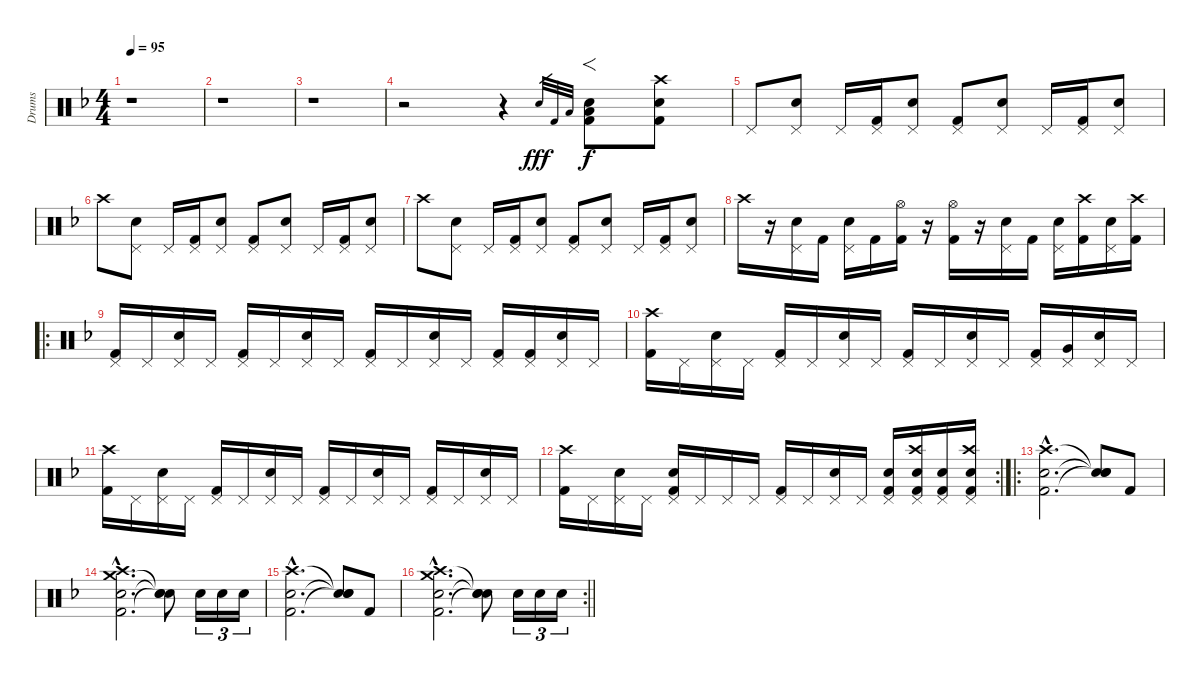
\track ("Drums" "Drums") {instrument percussion}
\staff {score}
\articulation defaults
\ts (4 4)
\tempo 95
\clef neutral
\ks dminor
r.1{dy fff} |
r.1 |
r.1 |
r.2 r.4 "Snare (hit) 2".32{gr} "Kick (hit) 2".32{gr} "Low Floor Tom (hit)".32{gr} ("Snare (hit) 2" "Kick (hit) 2" "Low Floor Tom (hit)").8{f bd 30 dy f} ("Crash high (hit)" "Snare (hit) 2" "Kick (hit) 2").8 |
"Pedal Hi-Hat (hit)".8 ("Pedal Hi-Hat (hit)" "Snare (hit) 2").8 "Pedal Hi-Hat (hit)".16 ("Pedal Hi-Hat (hit)" "Kick (hit) 2").16 ("Pedal Hi-Hat (hit)" "Snare (hit) 2").8 ("Pedal Hi-Hat (hit)" "Kick (hit) 2").8 ("Pedal Hi-Hat (hit)" "Snare (hit) 2").8 "Pedal Hi-Hat (hit)".16 ("Pedal Hi-Hat (hit)" "Kick (hit) 2").16 ("Pedal Hi-Hat (hit)" "Snare (hit) 2").8 |
"Crash high (hit)".8 ("Pedal Hi-Hat (hit)" "Snare (hit) 2").8 "Pedal Hi-Hat (hit)".16 ("Pedal Hi-Hat (hit)" "Kick (hit) 2").16 ("Pedal Hi-Hat (hit)" "Snare (hit) 2").8 ("Pedal Hi-Hat (hit)" "Kick (hit) 2").8 ("Pedal Hi-Hat (hit)" "Snare (hit) 2").8 "Pedal Hi-Hat (hit)".16 ("Pedal Hi-Hat (hit)" "Kick (hit) 2").16 ("Pedal Hi-Hat (hit)" "Snare (hit) 2").8 |
"Crash high (hit)".8 ("Pedal Hi-Hat (hit)" "Snare (hit) 2").8 "Pedal Hi-Hat (hit)".16 ("Pedal Hi-Hat (hit)" "Kick (hit) 2").16 ("Pedal Hi-Hat (hit)" "Snare (hit) 2").8 ("Pedal Hi-Hat (hit)" "Kick (hit) 2").8 ("Pedal Hi-Hat (hit)" "Snare (hit) 2").8 "Pedal Hi-Hat (hit)".16 ("Pedal Hi-Hat (hit)" "Kick (hit) 2").16 ("Pedal Hi-Hat (hit)" "Snare (hit) 2").8 |
"Crash high (hit)".16 r.16 ("Pedal Hi-Hat (hit)" "Snare (hit) 2").16 "Kick (hit) 2".16 ("Pedal Hi-Hat (hit)" "Snare (hit) 2").16 "Kick (hit) 2".16 ("Hi-Hat (open)" "Kick (hit) 2").16 r.16 ("Hi-Hat (open)" "Kick (hit) 2").16 r.16 ("Pedal Hi-Hat (hit)" "Snare (hit) 2").16 "Kick (hit) 2".16 ("Pedal Hi-Hat (hit)" "Snare (hit) 2").16 ("Crash high (hit)" "Kick (hit) 2").16 ("Pedal Hi-Hat (hit)" "Snare (hit) 2").16 ("Crash high (hit)" "Kick (hit) 2").16 |
\ro
("Pedal Hi-Hat (hit)" "Kick (hit) 2").16 "Pedal Hi-Hat (hit)".16 ("Pedal Hi-Hat (hit)" "Snare (hit) 2").16 "Pedal Hi-Hat (hit)".16 ("Pedal Hi-Hat (hit)" "Kick (hit) 2").16 "Pedal Hi-Hat (hit)".16 ("Pedal Hi-Hat (hit)" "Snare (hit) 2").16 "Pedal Hi-Hat (hit)".16 ("Pedal Hi-Hat (hit)" "Kick (hit) 2").16 "Pedal Hi-Hat (hit)".16 ("Pedal Hi-Hat (hit)" "Snare (hit) 2").16 "Pedal Hi-Hat (hit)".16 ("Pedal Hi-Hat (hit)" "Kick (hit) 2").16 ("Pedal Hi-Hat (hit)" "Kick (hit) 2").16 ("Pedal Hi-Hat (hit)" "Snare (hit) 2").16 "Pedal Hi-Hat (hit)".16 |
("Crash high (hit)" "Kick (hit) 2").16 "Pedal Hi-Hat (hit)".16 ("Pedal Hi-Hat (hit)" "Snare (hit) 2").16 "Pedal Hi-Hat (hit)".16 ("Pedal Hi-Hat (hit)" "Kick (hit) 2").16 "Pedal Hi-Hat (hit)".16 ("Pedal Hi-Hat (hit)" "Snare (hit) 2").16 "Pedal Hi-Hat (hit)".16 ("Pedal Hi-Hat (hit)" "Kick (hit) 2").16 "Pedal Hi-Hat (hit)".16 ("Pedal Hi-Hat (hit)" "Snare (hit) 2").16 "Pedal Hi-Hat (hit)".16 ("Pedal Hi-Hat (hit)" "Kick (hit) 2").16 ("Pedal Hi-Hat (hit)" "Very Low Tom (hit)").16 ("Pedal Hi-Hat (hit)" "Snare (hit) 2").16 "Pedal Hi-Hat (hit)".16 |
("Crash high (hit)" "Kick (hit) 2").16 "Pedal Hi-Hat (hit)".16 ("Pedal Hi-Hat (hit)" "Snare (hit) 2").16 "Pedal Hi-Hat (hit)".16 ("Pedal Hi-Hat (hit)" "Kick (hit) 2").16 "Pedal Hi-Hat (hit)".16 ("Pedal Hi-Hat (hit)" "Snare (hit) 2").16 "Pedal Hi-Hat (hit)".16 ("Pedal Hi-Hat (hit)" "Kick (hit) 2").16 "Pedal Hi-Hat (hit)".16 ("Pedal Hi-Hat (hit)" "Snare (hit) 2").16 "Pedal Hi-Hat (hit)".16 ("Pedal Hi-Hat (hit)" "Kick (hit) 2").16 "Pedal Hi-Hat (hit)".16 ("Pedal Hi-Hat (hit)" "Snare (hit) 2").16 "Pedal Hi-Hat (hit)".16 |
\rc 2
("Crash high (hit)" "Kick (hit) 2").16 "Pedal Hi-Hat (hit)".16 ("Pedal Hi-Hat (hit)" "Snare (hit) 2").16 "Pedal Hi-Hat (hit)".16 ("Pedal Hi-Hat (hit)" "Snare (hit) 2" "Kick (hit) 2").16 "Pedal Hi-Hat (hit)".16 "Pedal Hi-Hat (hit)".16 "Pedal Hi-Hat (hit)".16 ("Pedal Hi-Hat (hit)" "Kick (hit) 2").16 "Pedal Hi-Hat (hit)".16 ("Pedal Hi-Hat (hit)" "Snare (hit) 2").16 "Pedal Hi-Hat (hit)".16 ("Pedal Hi-Hat (hit)" "Snare (hit) 2" "Kick (hit) 2").16 ("Pedal Hi-Hat (hit)" "Snare (hit) 2" "Kick (hit) 2" "Crash high (hit)").16 ("Pedal Hi-Hat (hit)" "Snare (hit) 2" "Kick (hit) 2").16 ("Pedal Hi-Hat (hit)" "Snare (hit) 2" "Kick (hit) 2" "Crash high (hit)").16 |
\ro
("Snare (hit) 2"{hac} "Kick (hit) 2"{hac} "Crash high (hit)"{hac}).2{d} ("Snare (hit)"{t} "Snare (hit)"{t} "Snare (hit)"{t}).8 "Kick (hit) 2".8 |
("Crash medium (hit)"{hac} "Snare (hit) 2"{hac} "Kick (hit) 2"{hac} "Crash high (hit)"{hac}).2{d} ("Snare (hit)"{t} "Snare (hit)"{t} "Snare (hit)"{t}).8 "Snare (hit) 2".16{tu (3 2)} "Snare (hit) 2".16{tu (3 2)} "Snare (hit) 2".16{tu (3 2)} |
("Snare (hit) 2"{hac} "Kick (hit) 2"{hac} "Crash high (hit)"{hac}).2{d} ("Snare (hit)"{t} "Snare (hit)"{t} "Snare (hit)"{t}).8 "Kick (hit) 2".8 |
\rc 2
\barLineRight lightlight
("Crash high (hit)"{hac} "Snare (hit) 2"{hac} "Kick (hit) 2"{hac} "Crash medium (hit)"{hac}).2{d} ("Snare (hit)"{t} "Snare (hit)"{t} "Snare (hit)"{t}).8 "Snare (hit) 2".16{tu (3 2)} "Snare (hit) 2".16{tu (3 2)} "Snare (hit) 2".16{tu (3 2)}
